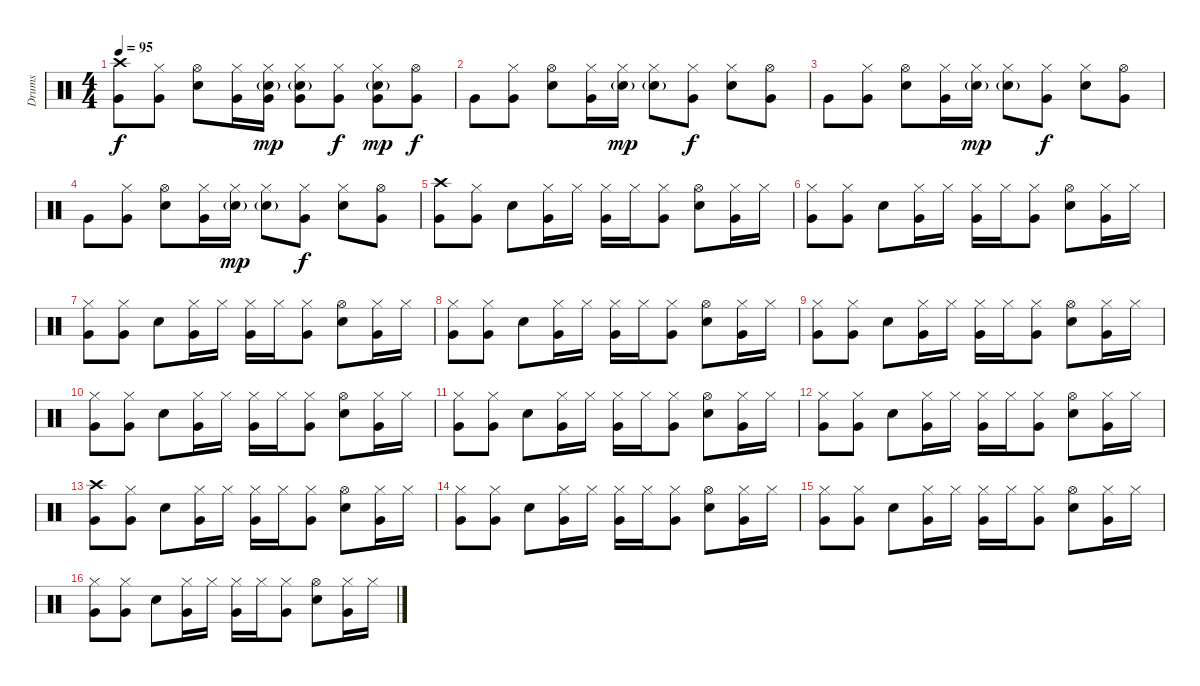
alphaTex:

\track ("Drums" "Drums") {instrument percussion}
\staff {score}
\articulation defaults
\ts (4 4)
\tempo 95
\clef neutral
\ks c
("Crash high (hit)" "Very Low Tom (hit)").8{dy f} ("Hi-Hat (closed)" "Very Low Tom (hit)").8 ("Hi-Hat (open)" "Electric Snare (hit)").8 ("Hi-Hat (closed)" "Very Low Tom (hit)").16 ("Hi-Hat (closed)" "Very Low Tom (hit)" "Electric Snare (hit)"{g}).16{dy mp} ("Hi-Hat (closed)" "Very Low Tom (hit)" "Electric Snare (hit)"{g}).8 ("Hi-Hat (closed)" "Very Low Tom (hit)").8{dy f} ("Hi-Hat (closed)" "Very Low Tom (hit)" "Electric Snare (hit)"{g}).8{dy mp} ("Hi-Hat (open)" "Very Low Tom (hit)").8{dy f} |
"Very Low Tom (hit)".8 ("Hi-Hat (closed)" "Very Low Tom (hit)").8 ("Hi-Hat (open)" "Electric Snare (hit)").8 ("Hi-Hat (closed)" "Very Low Tom (hit)").16 ("Hi-Hat (closed)" "Electric Snare (hit)"{g}).16{dy mp} ("Hi-Hat (closed)" "Electric Snare (hit)"{g}).8 ("Hi-Hat (closed)" "Very Low Tom (hit)").8{dy f} ("Hi-Hat (closed)" "Electric Snare (hit)").8 ("Hi-Hat (open)" "Very Low Tom (hit)").8 |
"Very Low Tom (hit)".8 ("Hi-Hat (closed)" "Very Low Tom (hit)").8 ("Hi-Hat (open)" "Electric Snare (hit)").8 ("Hi-Hat (closed)" "Very Low Tom (hit)").16 ("Hi-Hat (closed)" "Electric Snare (hit)"{g}).16{dy mp} ("Hi-Hat (closed)" "Electric Snare (hit)"{g}).8 ("Hi-Hat (closed)" "Very Low Tom (hit)").8{dy f} ("Hi-Hat (closed)" "Electric Snare (hit)").8 ("Hi-Hat (open)" "Very Low Tom (hit)").8 |
"Very Low Tom (hit)".8 ("Hi-Hat (closed)" "Very Low Tom (hit)").8 ("Hi-Hat (open)" "Electric Snare (hit)").8 ("Hi-Hat (closed)" "Very Low Tom (hit)").16 ("Hi-Hat (closed)" "Electric Snare (hit)"{g}).16{dy mp} ("Hi-Hat (closed)" "Electric Snare (hit)"{g}).8 ("Hi-Hat (closed)" "Very Low Tom (hit)").8{dy f} ("Hi-Hat (closed)" "Electric Snare (hit)").8 ("Hi-Hat (open)" "Very Low Tom (hit)").8 |
("Crash high (hit)" "Very Low Tom (hit)").8 ("Hi-Hat (closed)" "Very Low Tom (hit)").8 "Electric Snare (hit)".8 ("Hi-Hat (closed)" "Very Low Tom (hit)").16 "Hi-Hat (closed)".16 ("Hi-Hat (closed)" "Very Low Tom (hit)").16 "Hi-Hat (closed)".16 ("Hi-Hat (closed)" "Very Low Tom (hit)").8 ("Hi-Hat (open)" "Electric Snare (hit)").8 ("Hi-Hat (closed)" "Very Low Tom (hit)").16 "Hi-Hat (closed)".16 |
("Hi-Hat (closed)" "Very Low Tom (hit)").8 ("Hi-Hat (closed)" "Very Low Tom (hit)").8 "Electric Snare (hit)".8 ("Hi-Hat (closed)" "Very Low Tom (hit)").16 "Hi-Hat (closed)".16 ("Hi-Hat (closed)" "Very Low Tom (hit)").16 "Hi-Hat (closed)".16 ("Hi-Hat (closed)" "Very Low Tom (hit)").8 ("Hi-Hat (open)" "Electric Snare (hit)").8 ("Hi-Hat (closed)" "Very Low Tom (hit)").16 "Hi-Hat (closed)".16 |
("Hi-Hat (closed)" "Very Low Tom (hit)").8 ("Hi-Hat (closed)" "Very Low Tom (hit)").8 "Electric Snare (hit)".8 ("Hi-Hat (closed)" "Very Low Tom (hit)").16 "Hi-Hat (closed)".16 ("Hi-Hat (closed)" "Very Low Tom (hit)").16 "Hi-Hat (closed)".16 ("Hi-Hat (closed)" "Very Low Tom (hit)").8 ("Hi-Hat (open)" "Electric Snare (hit)").8 ("Hi-Hat (closed)" "Very Low Tom (hit)").16 "Hi-Hat (closed)".16 |
("Hi-Hat (closed)" "Very Low Tom (hit)").8 ("Hi-Hat (closed)" "Very Low Tom (hit)").8 "Electric Snare (hit)".8 ("Hi-Hat (closed)" "Very Low Tom (hit)").16 "Hi-Hat (closed)".16 ("Hi-Hat (closed)" "Very Low Tom (hit)").16 "Hi-Hat (closed)".16 ("Hi-Hat (closed)" "Very Low Tom (hit)").8 ("Hi-Hat (open)" "Electric Snare (hit)").8 ("Hi-Hat (closed)" "Very Low Tom (hit)").16 "Hi-Hat (closed)".16 |
("Hi-Hat (closed)" "Very Low Tom (hit)").8 ("Hi-Hat (closed)" "Very Low Tom (hit)").8 "Electric Snare (hit)".8 ("Hi-Hat (closed)" "Very Low Tom (hit)").16 "Hi-Hat (closed)".16 ("Hi-Hat (closed)" "Very Low Tom (hit)").16 "Hi-Hat (closed)".16 ("Hi-Hat (closed)" "Very Low Tom (hit)").8 ("Hi-Hat (open)" "Electric Snare (hit)").8 ("Hi-Hat (closed)" "Very Low Tom (hit)").16 "Hi-Hat (closed)".16 |
("Hi-Hat (closed)" "Very Low Tom (hit)").8 ("Hi-Hat (closed)" "Very Low Tom (hit)").8 "Electric Snare (hit)".8 ("Hi-Hat (closed)" "Very Low Tom (hit)").16 "Hi-Hat (closed)".16 ("Hi-Hat (closed)" "Very Low Tom (hit)").16 "Hi-Hat (closed)".16 ("Hi-Hat (closed)" "Very Low Tom (hit)").8 ("Hi-Hat (open)" "Electric Snare (hit)").8 ("Hi-Hat (closed)" "Very Low Tom (hit)").16 "Hi-Hat (closed)".16 |
("Hi-Hat (closed)" "Very Low Tom (hit)").8 ("Hi-Hat (closed)" "Very Low Tom (hit)").8 "Electric Snare (hit)".8 ("Hi-Hat (closed)" "Very Low Tom (hit)").16 "Hi-Hat (closed)".16 ("Hi-Hat (closed)" "Very Low Tom (hit)").16 "Hi-Hat (closed)".16 ("Hi-Hat (closed)" "Very Low Tom (hit)").8 ("Hi-Hat (open)" "Electric Snare (hit)").8 ("Hi-Hat (closed)" "Very Low Tom (hit)").16 "Hi-Hat (closed)".16 |
("Hi-Hat (closed)" "Very Low Tom (hit)").8 ("Hi-Hat (closed)" "Very Low Tom (hit)").8 "Electric Snare (hit)".8 ("Hi-Hat (closed)" "Very Low Tom (hit)").16 "Hi-Hat (closed)".16 ("Hi-Hat (closed)" "Very Low Tom (hit)").16 "Hi-Hat (closed)".16 ("Hi-Hat (closed)" "Very Low Tom (hit)").8 ("Hi-Hat (open)" "Electric Snare (hit)").8 ("Hi-Hat (closed)" "Very Low Tom (hit)").16 "Hi-Hat (closed)".16 |
("Crash high (hit)" "Very Low Tom (hit)").8 ("Hi-Hat (closed)" "Very Low Tom (hit)").8 "Electric Snare (hit)".8 ("Hi-Hat (closed)" "Very Low Tom (hit)").16 "Hi-Hat (closed)".16 ("Hi-Hat (closed)" "Very Low Tom (hit)").16 "Hi-Hat (closed)".16 ("Hi-Hat (closed)" "Very Low Tom (hit)").8 ("Hi-Hat (open)" "Electric Snare (hit)").8 ("Hi-Hat (closed)" "Very Low Tom (hit)").16 "Hi-Hat (closed)".16 |
("Hi-Hat (closed)" "Very Low Tom (hit)").8 ("Hi-Hat (closed)" "Very Low Tom (hit)").8 "Electric Snare (hit)".8 ("Hi-Hat (closed)" "Very Low Tom (hit)").16 "Hi-Hat (closed)".16 ("Hi-Hat (closed)" "Very Low Tom (hit)").16 "Hi-Hat (closed)".16 ("Hi-Hat (closed)" "Very Low Tom (hit)").8 ("Hi-Hat (open)" "Electric Snare (hit)").8 ("Hi-Hat (closed)" "Very Low Tom (hit)").16 "Hi-Hat (closed)".16 |
("Hi-Hat (closed)" "Very Low Tom (hit)").8 ("Hi-Hat (closed)" "Very Low Tom (hit)").8 "Electric Snare (hit)".8 ("Hi-Hat (closed)" "Very Low Tom (hit)").16 "Hi-Hat (closed)".16 ("Hi-Hat (closed)" "Very Low Tom (hit)").16 "Hi-Hat (closed)".16 ("Hi-Hat (closed)" "Very Low Tom (hit)").8 ("Hi-Hat (open)" "Electric Snare (hit)").8 ("Hi-Hat (closed)" "Very Low Tom (hit)").16 "Hi-Hat (closed)".16 |
("Hi-Hat (closed)" "Very Low Tom (hit)").8 ("Hi-Hat (closed)" "Very Low Tom (hit)").8 "Electric Snare (hit)".8 ("Hi-Hat (closed)" "Very Low Tom (hit)").16 "Hi-Hat (closed)".16 ("Hi-Hat (closed)" "Very Low Tom (hit)").16 "Hi-Hat (closed)".16 ("Hi-Hat (closed)" "Very Low Tom (hit)").8 ("Hi-Hat (open)" "Electric Snare (hit)").8 ("Hi-Hat (closed)" "Very Low Tom (hit)").16 "Hi-Hat (closed)".16
